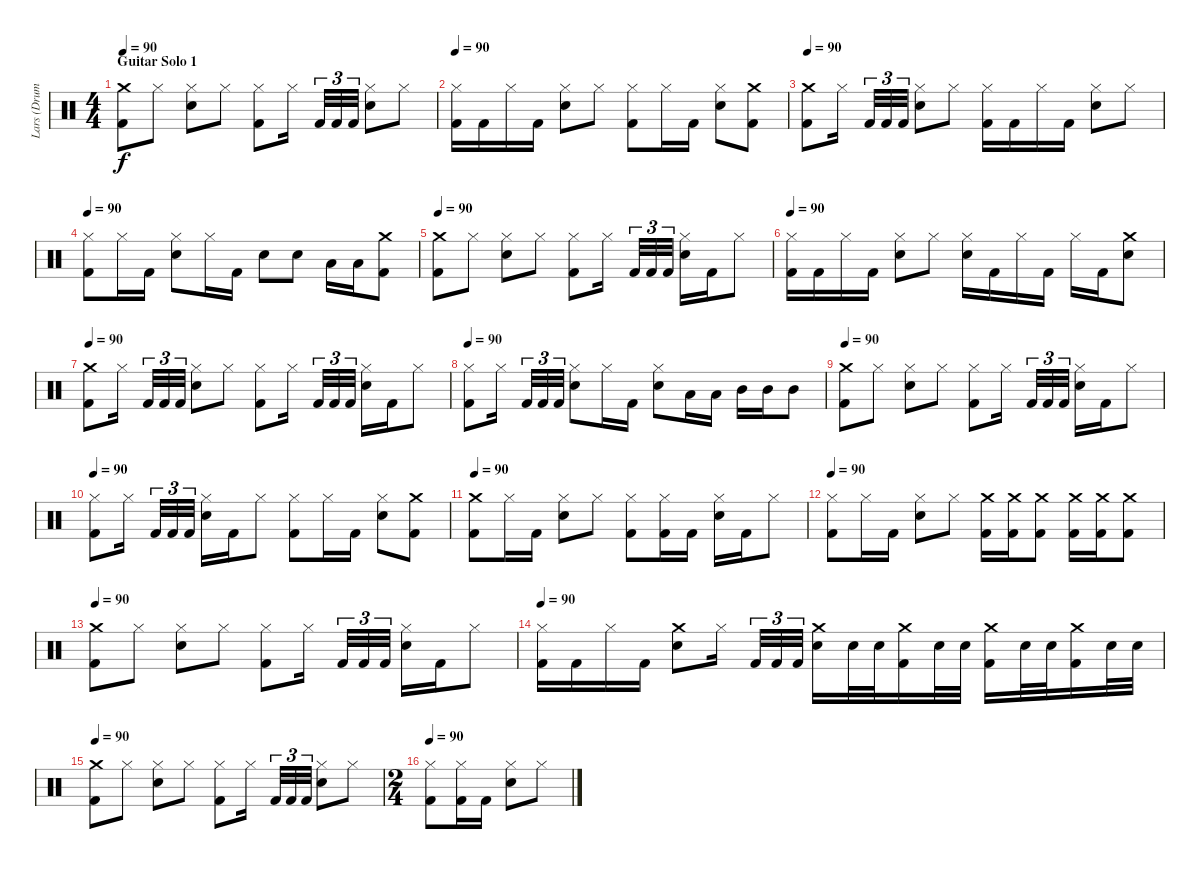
\track ("Lars (Drums)" "Lars (Drum") {instrument percussion}
\staff {score}
\articulation defaults
\ts (4 4)
\section ("" "Guitar Solo 1")
\tempo 90
\clef neutral
\ks c
("Kick (hit) 2" "Crash medium (hit)").8{dy f} "Hi-Hat (closed)".8 ("Snare (hit) 2" "Hi-Hat (closed)").8 "Hi-Hat (closed)".8 ("Hi-Hat (closed)" "Kick (hit) 2").8 "Hi-Hat (closed)".16{beam splitsecondary} "Kick (hit) 2".32{tu (3 2)} "Kick (hit) 2".32{tu (3 2)} "Kick (hit) 2".32{tu (3 2)} ("Snare (hit) 2" "Hi-Hat (closed)").8 "Hi-Hat (closed)".8 |
\tempo 90
("Kick (hit) 2" "Hi-Hat (closed)").16 "Kick (hit) 2".16 "Hi-Hat (closed)".16 "Kick (hit) 2".16 ("Snare (hit) 2" "Hi-Hat (closed)").8 "Hi-Hat (closed)".8 ("Kick (hit) 2" "Hi-Hat (closed)").8 "Hi-Hat (closed)".16 "Kick (hit) 2".16 ("Snare (hit) 2" "Hi-Hat (closed)").8 ("Kick (hit) 2" "Crash medium (hit)").8 |
\tempo 90
("Crash medium (hit)" "Kick (hit) 2").8 "Hi-Hat (closed)".16{beam splitsecondary} "Kick (hit) 2".32{tu (3 2)} "Kick (hit) 2".32{tu (3 2)} "Kick (hit) 2".32{tu (3 2)} ("Snare (hit) 2" "Hi-Hat (closed)").8 "Hi-Hat (closed)".8 ("Kick (hit) 2" "Hi-Hat (closed)").16 "Kick (hit) 2".16 "Hi-Hat (closed)".16 "Kick (hit) 2".16 ("Snare (hit) 2" "Hi-Hat (closed)").8 "Hi-Hat (closed)".8 |
\tempo 90
("Kick (hit) 2" "Hi-Hat (closed)").8 "Hi-Hat (closed)".16 "Kick (hit) 2".16 ("Snare (hit) 2" "Hi-Hat (closed)").8 "Hi-Hat (closed)".16 "Kick (hit) 2".16 "Snare (hit) 2".8 "Snare (hit) 2".8 "Low Tom (hit)".16 "Low Tom (hit)".16 ("Crash medium (hit)" "Kick (hit) 2").8 |
\tempo 90
("Crash medium (hit)" "Kick (hit) 2").8 "Hi-Hat (closed)".8 ("Snare (hit) 2" "Hi-Hat (closed)").8 "Hi-Hat (closed)".8 ("Hi-Hat (closed)" "Kick (hit) 2").8 "Hi-Hat (closed)".16{beam splitsecondary} "Kick (hit) 2".32{tu (3 2)} "Kick (hit) 2".32{tu (3 2)} "Kick (hit) 2".32{tu (3 2)} ("Snare (hit) 2" "Hi-Hat (closed)").16 "Kick (hit) 2".16 "Hi-Hat (closed)".8 |
\tempo 90
("Kick (hit) 2" "Hi-Hat (closed)").16 "Kick (hit) 2".16 "Hi-Hat (closed)".16 "Kick (hit) 2".16 ("Snare (hit) 2" "Hi-Hat (closed)").8 "Hi-Hat (closed)".8 ("Hi-Hat (closed)" "Snare (hit) 2").16 "Kick (hit) 2".16 "Hi-Hat (closed)".16 "Kick (hit) 2".16 "Hi-Hat (closed)".16 "Kick (hit) 2".16 ("Crash medium (hit)" "Snare (hit) 2").8 |
\tempo 90
("Crash medium (hit)" "Kick (hit) 2").8 "Hi-Hat (closed)".16{beam splitsecondary} "Kick (hit) 2".32{tu (3 2)} "Kick (hit) 2".32{tu (3 2)} "Kick (hit) 2".32{tu (3 2)} ("Snare (hit) 2" "Hi-Hat (closed)").8 "Hi-Hat (closed)".8 ("Hi-Hat (closed)" "Kick (hit) 2").8 "Hi-Hat (closed)".16{beam splitsecondary} "Kick (hit) 2".32{tu (3 2)} "Kick (hit) 2".32{tu (3 2)} "Kick (hit) 2".32{tu (3 2)} ("Snare (hit) 2" "Hi-Hat (closed)").16 "Kick (hit) 2".16 "Hi-Hat (closed)".8 |
\tempo 90
("Hi-Hat (closed)" "Kick (hit) 2").8 "Hi-Hat (closed)".16{beam splitsecondary} "Kick (hit) 2".32{tu (3 2)} "Kick (hit) 2".32{tu (3 2)} "Kick (hit) 2".32{tu (3 2)} ("Snare (hit) 2" "Hi-Hat (closed)").8 "Hi-Hat (closed)".16 "Kick (hit) 2".16 ("Snare (hit) 2" "Hi-Hat (closed)").8 "Low Tom (hit)".16 "Low Tom (hit)".16 "Mid Tom (hit)".16 "Mid Tom (hit)".16 "Mid Tom (hit)".8 |
\tempo 90
("Crash medium (hit)" "Kick (hit) 2").8 "Hi-Hat (closed)".8 ("Snare (hit) 2" "Hi-Hat (closed)").8 "Hi-Hat (closed)".8 ("Hi-Hat (closed)" "Kick (hit) 2").8 "Hi-Hat (closed)".16{beam splitsecondary} "Kick (hit) 2".32{tu (3 2)} "Kick (hit) 2".32{tu (3 2)} "Kick (hit) 2".32{tu (3 2)} ("Snare (hit) 2" "Hi-Hat (closed)").16 "Kick (hit) 2".16 "Hi-Hat (closed)".8 |
\tempo 90
("Hi-Hat (closed)" "Kick (hit) 2").8 "Hi-Hat (closed)".16{beam splitsecondary} "Kick (hit) 2".32{tu (3 2)} "Kick (hit) 2".32{tu (3 2)} "Kick (hit) 2".32{tu (3 2)} ("Snare (hit) 2" "Hi-Hat (closed)").16 "Kick (hit) 2".16 "Hi-Hat (closed)".8 ("Hi-Hat (closed)" "Kick (hit) 2").8 "Hi-Hat (closed)".16 "Kick (hit) 2".16 ("Snare (hit) 2" "Hi-Hat (closed)").8 ("Crash medium (hit)" "Kick (hit) 2").8 |
\tempo 90
("Kick (hit) 2" "Crash medium (hit)").8 "Hi-Hat (closed)".16 "Kick (hit) 2".16 ("Snare (hit) 2" "Hi-Hat (closed)").8 "Hi-Hat (closed)".8 ("Hi-Hat (closed)" "Kick (hit) 2").8 ("Hi-Hat (closed)" "Kick (hit) 2").16 "Kick (hit) 2".16 ("Snare (hit) 2" "Hi-Hat (closed)").16 "Kick (hit) 2".16 "Hi-Hat (closed)".8 |
\tempo 90
("Hi-Hat (closed)" "Kick (hit) 2").8 "Hi-Hat (closed)".16 "Kick (hit) 2".16 ("Snare (hit) 2" "Hi-Hat (closed)").8 "Hi-Hat (closed)".8 ("Kick (hit) 2" "Crash medium (hit)").16 ("Kick (hit) 2" "Crash medium (hit)").16 ("Kick (hit) 2" "Crash medium (hit)").8 ("Kick (hit) 2" "Crash medium (hit)").16 ("Kick (hit) 2" "Crash medium (hit)").16 ("Kick (hit) 2" "Crash medium (hit)").8 |
\tempo 90
("Crash medium (hit)" "Kick (hit) 2").8 "Hi-Hat (closed)".8 ("Snare (hit) 2" "Hi-Hat (closed)").8 "Hi-Hat (closed)".8 ("Hi-Hat (closed)" "Kick (hit) 2").8 "Hi-Hat (closed)".16{beam splitsecondary} "Kick (hit) 2".32{tu (3 2)} "Kick (hit) 2".32{tu (3 2)} "Kick (hit) 2".32{tu (3 2)} ("Snare (hit) 2" "Hi-Hat (closed)").16 "Kick (hit) 2".16 "Hi-Hat (closed)".8 |
\tempo 90
("Hi-Hat (closed)" "Kick (hit) 2").16 "Kick (hit) 2".16 "Hi-Hat (closed)".16 "Kick (hit) 2".16 ("Crash medium (hit)" "Snare (hit) 2").8 "Hi-Hat (closed)".16{beam splitsecondary} "Kick (hit) 2".32{tu (3 2)} "Kick (hit) 2".32{tu (3 2)} "Kick (hit) 2".32{tu (3 2)} ("Snare (hit) 2" "Crash medium (hit)").16 "Snare (hit) 2".32 "Snare (hit) 2".32 ("Crash medium (hit)" "Kick (hit) 2").16 "Snare (hit) 2".32 "Snare (hit) 2".32 ("Crash medium (hit)" "Kick (hit) 2").16 "Snare (hit) 2".32 "Snare (hit) 2".32 ("Crash medium (hit)" "Kick (hit) 2").16 "Snare (hit) 2".32 "Snare (hit) 2".32 |
\tempo 90
("Kick (hit) 2" "Crash medium (hit)").8 "Hi-Hat (closed)".8 ("Snare (hit) 2" "Hi-Hat (closed)").8 "Hi-Hat (closed)".8 ("Hi-Hat (closed)" "Kick (hit) 2").8 "Hi-Hat (closed)".16{beam splitsecondary} "Kick (hit) 2".32{tu (3 2)} "Kick (hit) 2".32{tu (3 2)} "Kick (hit) 2".32{tu (3 2)} ("Hi-Hat (closed)" "Snare (hit) 2").8 "Hi-Hat (closed)".8 |
\ts (2 4)
\tempo 90
("Kick (hit) 2" "Hi-Hat (closed)").8 ("Kick (hit) 2" "Hi-Hat (closed)").16 "Kick (hit) 2".16 ("Snare (hit) 2" "Hi-Hat (closed)").8 "Hi-Hat (closed)".8
